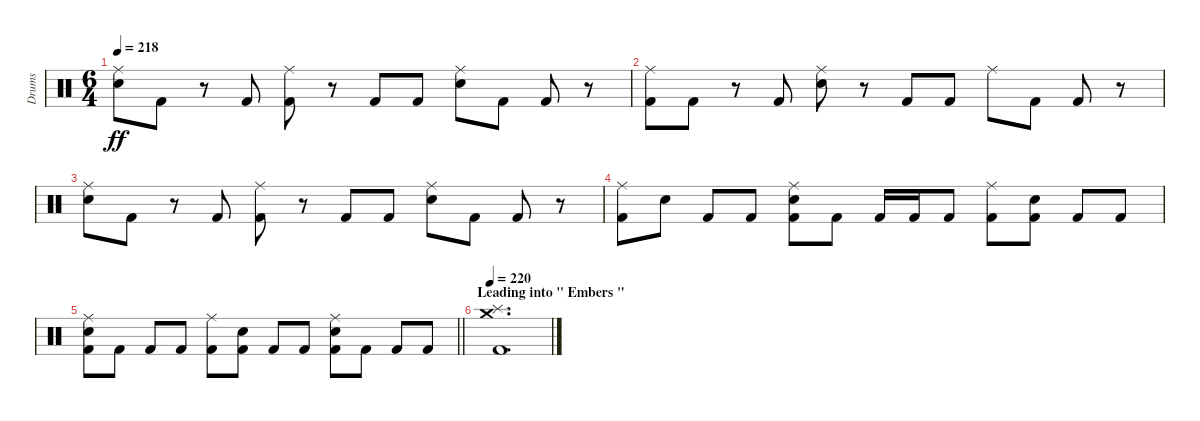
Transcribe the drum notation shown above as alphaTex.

\track ("Drums" "Drums") {instrument percussion}
\staff {score}
\articulation defaults
\ts (6 4)
\tempo 218
\clef neutral
\ks c
("Ride (middle)" "Electric Snare (hit)").8{dy ff} "Kick (hit) 2".8 r.8 "Kick (hit) 2".8 ("Ride (middle)" "Kick (hit) 2").8 r.8 "Kick (hit) 2".8 "Kick (hit) 2".8 ("Ride (middle)" "Electric Snare (hit)").8 "Kick (hit) 2".8 "Kick (hit) 2".8 r.8 |
("Ride (middle)" "Kick (hit) 2").8 "Kick (hit) 2".8 r.8 "Kick (hit) 2".8 ("Ride (middle)" "Electric Snare (hit)").8 r.8 "Kick (hit) 2".8 "Kick (hit) 2".8 "Ride (middle)".8 "Kick (hit) 2".8 "Kick (hit) 2".8 r.8 |
("Ride (middle)" "Electric Snare (hit)").8 "Kick (hit) 2".8 r.8 "Kick (hit) 2".8 ("Ride (middle)" "Kick (hit) 2").8 r.8 "Kick (hit) 2".8 "Kick (hit) 2".8 ("Ride (middle)" "Electric Snare (hit)").8 "Kick (hit) 2".8 "Kick (hit) 2".8 r.8 |
("Ride (middle)" "Kick (hit) 2").8 "Electric Snare (hit)".8 "Kick (hit) 2".8 "Kick (hit) 2".8 ("Ride (middle)" "Electric Snare (hit)" "Kick (hit) 2").8 "Kick (hit) 2".8 "Kick (hit) 2".16 "Kick (hit) 2".16 "Kick (hit) 2".8 ("Ride (middle)" "Kick (hit) 2").8 ("Electric Snare (hit)" "Kick (hit) 2").8 "Kick (hit) 2".8 "Kick (hit) 2".8 |
\barLineRight lightlight
("Ride (middle)" "Electric Snare (hit)" "Kick (hit) 2").8 "Kick (hit) 2".8 "Kick (hit) 2".8 "Kick (hit) 2".8 ("Ride (middle)" "Kick (hit) 2").8 ("Electric Snare (hit)" "Kick (hit) 2").8 "Kick (hit) 2".8 "Kick (hit) 2".8 ("Ride (middle)" "Electric Snare (hit)" "Kick (hit) 2").8 "Kick (hit) 2".8 "Kick (hit) 2".8 "Kick (hit) 2".8 |
\section ("" "Leading into \" Embers \"")
\tempo 220
("Crash medium (hit)" "Splash (hit)" "Kick (hit) 2").1{d}
